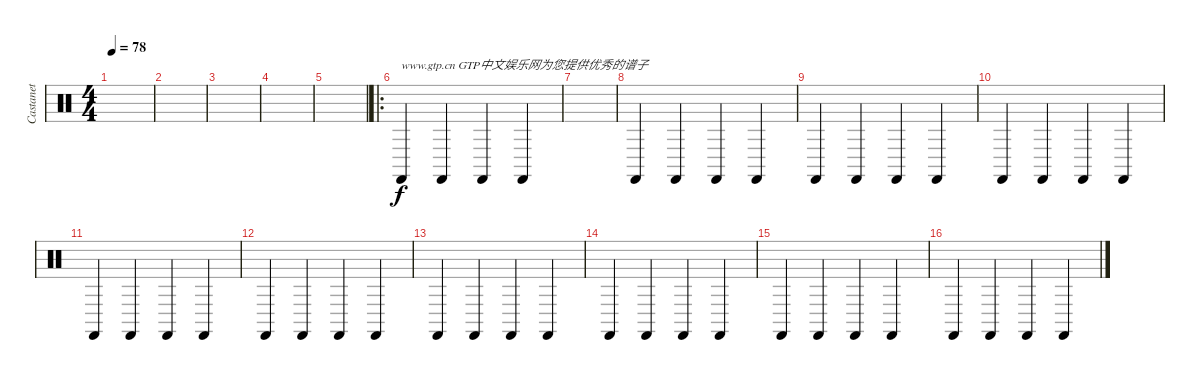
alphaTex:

\track ("Castanet" "Castanet") {instrument percussion}
\staff {score}
\articulation defaults
\ts (4 4)
\tempo 78
\clef neutral
\ks c
|
|
|
|
|
\ro "Castanets (hit)".4{txt "www.gtp.cn GTP中文娱乐网为您提供优秀的谱子"} "Castanets (hit)".4 "Castanets (hit)".4 "Castanets (hit)".4
|
|
"Castanets (hit)".4 "Castanets (hit)".4 "Castanets (hit)".4 "Castanets (hit)".4 |
"Castanets (hit)".4 "Castanets (hit)".4 "Castanets (hit)".4 "Castanets (hit)".4 |
"Castanets (hit)".4 "Castanets (hit)".4 "Castanets (hit)".4 "Castanets (hit)".4 |
"Castanets (hit)".4 "Castanets (hit)".4 "Castanets (hit)".4 "Castanets (hit)".4 |
"Castanets (hit)".4 "Castanets (hit)".4 "Castanets (hit)".4 "Castanets (hit)".4 |
"Castanets (hit)".4 "Castanets (hit)".4 "Castanets (hit)".4 "Castanets (hit)".4 |
"Castanets (hit)".4 "Castanets (hit)".4 "Castanets (hit)".4 "Castanets (hit)".4 |
"Castanets (hit)".4 "Castanets (hit)".4 "Castanets (hit)".4 "Castanets (hit)".4 |
"Castanets (hit)".4 "Castanets (hit)".4 "Castanets (hit)".4 "Castanets (hit)".4
